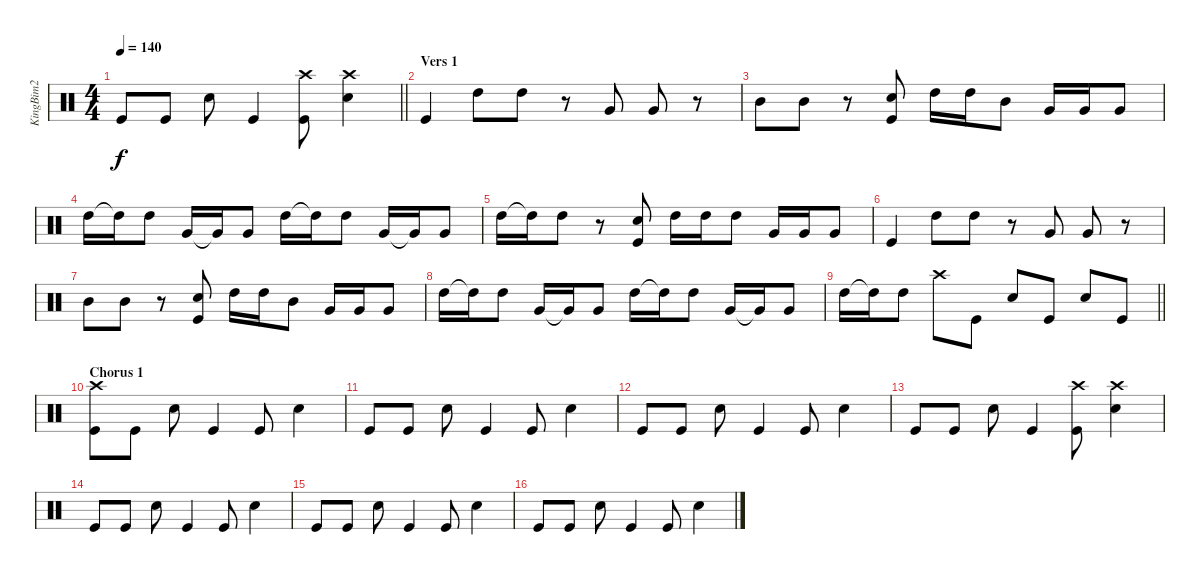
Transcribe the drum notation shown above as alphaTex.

\track ("KingBim2" "KingBim2") {instrument percussion}
\staff {score}
\articulation defaults
\ts (4 4)
\tempo 140
\clef neutral
\barLineRight lightlight
\ks c "Kick (hit)".8{dy f} "Kick (hit)".8 "Snare (hit) 2".8 "Kick (hit)".4
("Crash high (hit)" "Kick (hit)").8 ("Crash high (hit)" "Snare (hit) 2").4 |
\section ("" "Vers 1")
"Kick (hit)".4 "High Tom (hit)".8 "High Tom (hit)".8 r.8 "Very Low Tom (hit)".8 "Very Low Tom (hit)".8 r.8 |
"Mid Tom (hit)".8 "Mid Tom (hit)".8 r.8 ("Snare (hit) 2" "Kick (hit)").8 "High Tom (hit)".16 "High Tom (hit)".16 "Mid Tom (hit)".8 "Very Low Tom (hit)".16 "Very Low Tom (hit)".16 "Very Low Tom (hit)".8 |
"High Tom (hit)".16 "High Tom (hit)"{t}.16 "High Tom (hit)".8 "Very Low Tom (hit)".16 "Very Low Tom (hit)"{t}.16 "Very Low Tom (hit)".8 "High Tom (hit)".16 "High Tom (hit)"{t}.16 "High Tom (hit)".8 "Very Low Tom (hit)".16 "Very Low Tom (hit)"{t}.16 "Very Low Tom (hit)".8 |
"High Tom (hit)".16 "High Tom (hit)"{t}.16 "High Tom (hit)".8 r.8 ("Snare (hit) 2" "Kick (hit)").8 "High Tom (hit)".16 "High Tom (hit)".16 "High Tom (hit)".8 "Very Low Tom (hit)".16 "Very Low Tom (hit)".16 "Very Low Tom (hit)".8 |
"Kick (hit)".4 "High Tom (hit)".8 "High Tom (hit)".8 r.8 "Very Low Tom (hit)".8 "Very Low Tom (hit)".8 r.8 |
"Mid Tom (hit)".8 "Mid Tom (hit)".8 r.8 ("Snare (hit) 2" "Kick (hit)").8 "High Tom (hit)".16 "High Tom (hit)".16 "Mid Tom (hit)".8 "Very Low Tom (hit)".16 "Very Low Tom (hit)".16 "Very Low Tom (hit)".8 |
"High Tom (hit)".16 "High Tom (hit)"{t}.16 "High Tom (hit)".8 "Very Low Tom (hit)".16 "Very Low Tom (hit)"{t}.16 "Very Low Tom (hit)".8 "High Tom (hit)".16 "High Tom (hit)"{t}.16 "High Tom (hit)".8 "Very Low Tom (hit)".16 "Very Low Tom (hit)"{t}.16 "Very Low Tom (hit)".8 |
\barLineRight lightlight "High Tom (hit)".16 "High Tom (hit)"{t}.16 "High Tom (hit)".8 "Crash high (hit)".8 "Kick (hit)".8 "Snare (hit) 2".8 "Kick (hit)".8 "Snare (hit) 2".8 "Kick (hit)".8
|
\section ("" "Chorus 1")
("Crash high (hit)" "Kick (hit)").8 "Kick (hit)".8 "Snare (hit) 2".8 "Kick (hit)".4 "Kick (hit)".8 "Snare (hit) 2".4 |
"Kick (hit)".8 "Kick (hit)".8 "Snare (hit) 2".8 "Kick (hit)".4 "Kick (hit)".8 "Snare (hit) 2".4 |
"Kick (hit)".8 "Kick (hit)".8 "Snare (hit) 2".8 "Kick (hit)".4 "Kick (hit)".8 "Snare (hit) 2".4 |
"Kick (hit)".8 "Kick (hit)".8 "Snare (hit) 2".8 "Kick (hit)".4 ("Crash high (hit)" "Kick (hit)").8 ("Crash high (hit)" "Snare (hit) 2").4 |
"Kick (hit)".8 "Kick (hit)".8 "Snare (hit) 2".8 "Kick (hit)".4 "Kick (hit)".8 "Snare (hit) 2".4 |
"Kick (hit)".8 "Kick (hit)".8 "Snare (hit) 2".8 "Kick (hit)".4 "Kick (hit)".8 "Snare (hit) 2".4 |
"Kick (hit)".8 "Kick (hit)".8 "Snare (hit) 2".8 "Kick (hit)".4 "Kick (hit)".8 "Snare (hit) 2".4
